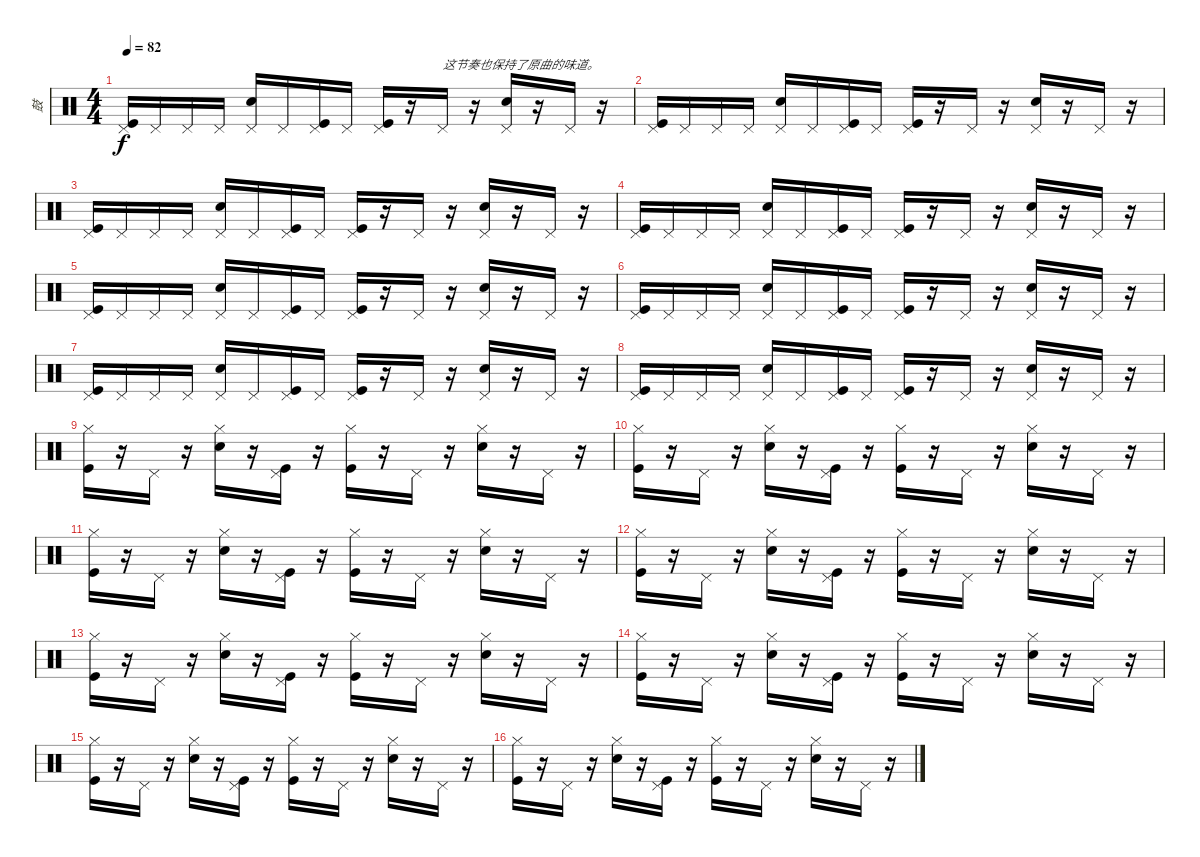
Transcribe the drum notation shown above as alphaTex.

\track ("鼓" "鼓") {instrument percussion}
\staff {score}
\articulation defaults
\ts (4 4)
\tempo 82
\clef neutral
\ks c
("Pedal Hi-Hat (hit)" "Kick (hit)").16{dy f} "Pedal Hi-Hat (hit)".16 "Pedal Hi-Hat (hit)".16 "Pedal Hi-Hat (hit)".16 ("Pedal Hi-Hat (hit)" "Electric Snare (hit)").16 "Pedal Hi-Hat (hit)".16 ("Pedal Hi-Hat (hit)" "Kick (hit)").16 "Pedal Hi-Hat (hit)".16 ("Pedal Hi-Hat (hit)" "Kick (hit)").16 r.16 "Pedal Hi-Hat (hit)".16{txt "这节奏也保持了原曲的味道。"} r.16 ("Pedal Hi-Hat (hit)" "Electric Snare (hit)").16 r.16 "Pedal Hi-Hat (hit)".16 r.16 |
("Pedal Hi-Hat (hit)" "Kick (hit)").16 "Pedal Hi-Hat (hit)".16 "Pedal Hi-Hat (hit)".16 "Pedal Hi-Hat (hit)".16 ("Pedal Hi-Hat (hit)" "Electric Snare (hit)").16 "Pedal Hi-Hat (hit)".16 ("Pedal Hi-Hat (hit)" "Kick (hit)").16 "Pedal Hi-Hat (hit)".16 ("Pedal Hi-Hat (hit)" "Kick (hit)").16 r.16 "Pedal Hi-Hat (hit)".16 r.16 ("Pedal Hi-Hat (hit)" "Electric Snare (hit)").16 r.16 "Pedal Hi-Hat (hit)".16 r.16 |
("Pedal Hi-Hat (hit)" "Kick (hit)").16 "Pedal Hi-Hat (hit)".16 "Pedal Hi-Hat (hit)".16 "Pedal Hi-Hat (hit)".16 ("Pedal Hi-Hat (hit)" "Electric Snare (hit)").16 "Pedal Hi-Hat (hit)".16 ("Pedal Hi-Hat (hit)" "Kick (hit)").16 "Pedal Hi-Hat (hit)".16 ("Pedal Hi-Hat (hit)" "Kick (hit)").16 r.16 "Pedal Hi-Hat (hit)".16 r.16 ("Pedal Hi-Hat (hit)" "Electric Snare (hit)").16 r.16 "Pedal Hi-Hat (hit)".16 r.16 |
("Pedal Hi-Hat (hit)" "Kick (hit)").16 "Pedal Hi-Hat (hit)".16 "Pedal Hi-Hat (hit)".16 "Pedal Hi-Hat (hit)".16 ("Pedal Hi-Hat (hit)" "Electric Snare (hit)").16 "Pedal Hi-Hat (hit)".16 ("Pedal Hi-Hat (hit)" "Kick (hit)").16 "Pedal Hi-Hat (hit)".16 ("Pedal Hi-Hat (hit)" "Kick (hit)").16 r.16 "Pedal Hi-Hat (hit)".16 r.16 ("Pedal Hi-Hat (hit)" "Electric Snare (hit)").16 r.16 "Pedal Hi-Hat (hit)".16 r.16 |
("Pedal Hi-Hat (hit)" "Kick (hit)").16 "Pedal Hi-Hat (hit)".16 "Pedal Hi-Hat (hit)".16 "Pedal Hi-Hat (hit)".16 ("Pedal Hi-Hat (hit)" "Electric Snare (hit)").16 "Pedal Hi-Hat (hit)".16 ("Pedal Hi-Hat (hit)" "Kick (hit)").16 "Pedal Hi-Hat (hit)".16 ("Pedal Hi-Hat (hit)" "Kick (hit)").16 r.16 "Pedal Hi-Hat (hit)".16 r.16 ("Pedal Hi-Hat (hit)" "Electric Snare (hit)").16 r.16 "Pedal Hi-Hat (hit)".16 r.16 |
("Pedal Hi-Hat (hit)" "Kick (hit)").16 "Pedal Hi-Hat (hit)".16 "Pedal Hi-Hat (hit)".16 "Pedal Hi-Hat (hit)".16 ("Pedal Hi-Hat (hit)" "Electric Snare (hit)").16 "Pedal Hi-Hat (hit)".16 ("Pedal Hi-Hat (hit)" "Kick (hit)").16 "Pedal Hi-Hat (hit)".16 ("Pedal Hi-Hat (hit)" "Kick (hit)").16 r.16 "Pedal Hi-Hat (hit)".16 r.16 ("Pedal Hi-Hat (hit)" "Electric Snare (hit)").16 r.16 "Pedal Hi-Hat (hit)".16 r.16 |
("Pedal Hi-Hat (hit)" "Kick (hit)").16 "Pedal Hi-Hat (hit)".16 "Pedal Hi-Hat (hit)".16 "Pedal Hi-Hat (hit)".16 ("Pedal Hi-Hat (hit)" "Electric Snare (hit)").16 "Pedal Hi-Hat (hit)".16 ("Pedal Hi-Hat (hit)" "Kick (hit)").16 "Pedal Hi-Hat (hit)".16 ("Pedal Hi-Hat (hit)" "Kick (hit)").16 r.16 "Pedal Hi-Hat (hit)".16 r.16 ("Pedal Hi-Hat (hit)" "Electric Snare (hit)").16 r.16 "Pedal Hi-Hat (hit)".16 r.16 |
("Pedal Hi-Hat (hit)" "Kick (hit)").16 "Pedal Hi-Hat (hit)".16 "Pedal Hi-Hat (hit)".16 "Pedal Hi-Hat (hit)".16 ("Pedal Hi-Hat (hit)" "Electric Snare (hit)").16 "Pedal Hi-Hat (hit)".16 ("Pedal Hi-Hat (hit)" "Kick (hit)").16 "Pedal Hi-Hat (hit)".16 ("Pedal Hi-Hat (hit)" "Kick (hit)").16 r.16 "Pedal Hi-Hat (hit)".16 r.16 ("Pedal Hi-Hat (hit)" "Electric Snare (hit)").16 r.16 "Pedal Hi-Hat (hit)".16 r.16 |
("Hi-Hat (closed)" "Kick (hit)").16 r.16 "Pedal Hi-Hat (hit)".16 r.16 ("Hi-Hat (closed)" "Electric Snare (hit)").16 r.16 ("Pedal Hi-Hat (hit)" "Kick (hit)").16 r.16 ("Hi-Hat (closed)" "Kick (hit)").16 r.16 "Pedal Hi-Hat (hit)".16 r.16 ("Hi-Hat (closed)" "Electric Snare (hit)").16 r.16 "Pedal Hi-Hat (hit)".16 r.16 |
("Hi-Hat (closed)" "Kick (hit)").16 r.16 "Pedal Hi-Hat (hit)".16 r.16 ("Hi-Hat (closed)" "Electric Snare (hit)").16 r.16 ("Pedal Hi-Hat (hit)" "Kick (hit)").16 r.16 ("Hi-Hat (closed)" "Kick (hit)").16 r.16 "Pedal Hi-Hat (hit)".16 r.16 ("Hi-Hat (closed)" "Electric Snare (hit)").16 r.16 "Pedal Hi-Hat (hit)".16 r.16 |
("Hi-Hat (closed)" "Kick (hit)").16 r.16 "Pedal Hi-Hat (hit)".16 r.16 ("Hi-Hat (closed)" "Electric Snare (hit)").16 r.16 ("Pedal Hi-Hat (hit)" "Kick (hit)").16 r.16 ("Hi-Hat (closed)" "Kick (hit)").16 r.16 "Pedal Hi-Hat (hit)".16 r.16 ("Hi-Hat (closed)" "Electric Snare (hit)").16 r.16 "Pedal Hi-Hat (hit)".16 r.16 |
("Hi-Hat (closed)" "Kick (hit)").16 r.16 "Pedal Hi-Hat (hit)".16 r.16 ("Hi-Hat (closed)" "Electric Snare (hit)").16 r.16 ("Pedal Hi-Hat (hit)" "Kick (hit)").16 r.16 ("Hi-Hat (closed)" "Kick (hit)").16 r.16 "Pedal Hi-Hat (hit)".16 r.16 ("Hi-Hat (closed)" "Electric Snare (hit)").16 r.16 "Pedal Hi-Hat (hit)".16 r.16 |
("Hi-Hat (closed)" "Kick (hit)").16 r.16 "Pedal Hi-Hat (hit)".16 r.16 ("Hi-Hat (closed)" "Electric Snare (hit)").16 r.16 ("Pedal Hi-Hat (hit)" "Kick (hit)").16 r.16 ("Hi-Hat (closed)" "Kick (hit)").16 r.16 "Pedal Hi-Hat (hit)".16 r.16 ("Hi-Hat (closed)" "Electric Snare (hit)").16 r.16 "Pedal Hi-Hat (hit)".16 r.16 |
("Hi-Hat (closed)" "Kick (hit)").16 r.16 "Pedal Hi-Hat (hit)".16 r.16 ("Hi-Hat (closed)" "Electric Snare (hit)").16 r.16 ("Pedal Hi-Hat (hit)" "Kick (hit)").16 r.16 ("Hi-Hat (closed)" "Kick (hit)").16 r.16 "Pedal Hi-Hat (hit)".16 r.16 ("Hi-Hat (closed)" "Electric Snare (hit)").16 r.16 "Pedal Hi-Hat (hit)".16 r.16 |
("Hi-Hat (closed)" "Kick (hit)").16 r.16 "Pedal Hi-Hat (hit)".16 r.16 ("Hi-Hat (closed)" "Electric Snare (hit)").16 r.16 ("Pedal Hi-Hat (hit)" "Kick (hit)").16 r.16 ("Hi-Hat (closed)" "Kick (hit)").16 r.16 "Pedal Hi-Hat (hit)".16 r.16 ("Hi-Hat (closed)" "Electric Snare (hit)").16 r.16 "Pedal Hi-Hat (hit)".16 r.16 |
("Hi-Hat (closed)" "Kick (hit)").16 r.16 "Pedal Hi-Hat (hit)".16 r.16 ("Hi-Hat (closed)" "Electric Snare (hit)").16 r.16 ("Pedal Hi-Hat (hit)" "Kick (hit)").16 r.16 ("Hi-Hat (closed)" "Kick (hit)").16 r.16 "Pedal Hi-Hat (hit)".16 r.16 ("Hi-Hat (closed)" "Electric Snare (hit)").16 r.16 "Pedal Hi-Hat (hit)".16 r.16
